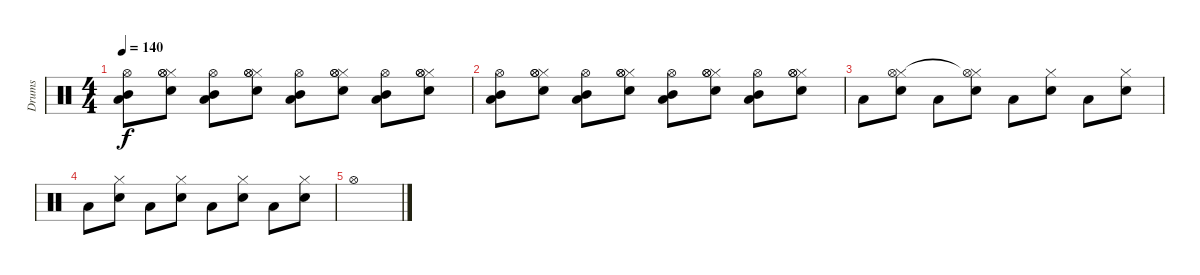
\track ("Drums" "Drums") {instrument percussion}
\staff {score}
\articulation defaults
\ts (4 4)
\tempo 140
\clef neutral
\ks c
("Mid Tom (hit)" "Hi-Hat (open)" "Low Tom (hit)").8{dy f} ("Hi-Hat (closed)" "Hi-Hat (open)" "Hi-Hat (open)" "Electric Snare (hit)").8 ("Mid Tom (hit)" "Hi-Hat (open)" "Low Tom (hit)").8 ("Hi-Hat (closed)" "Hi-Hat (open)" "Hi-Hat (open)" "Electric Snare (hit)").8 ("Mid Tom (hit)" "Hi-Hat (open)" "Low Tom (hit)").8 ("Hi-Hat (closed)" "Hi-Hat (open)" "Hi-Hat (open)" "Electric Snare (hit)").8 ("Mid Tom (hit)" "Hi-Hat (open)" "Low Tom (hit)").8 ("Hi-Hat (closed)" "Hi-Hat (open)" "Hi-Hat (open)" "Electric Snare (hit)").8 |
("Mid Tom (hit)" "Hi-Hat (open)" "Low Tom (hit)").8 ("Hi-Hat (closed)" "Hi-Hat (open)" "Hi-Hat (open)" "Electric Snare (hit)").8 ("Mid Tom (hit)" "Hi-Hat (open)" "Low Tom (hit)").8 ("Hi-Hat (closed)" "Hi-Hat (open)" "Hi-Hat (open)" "Electric Snare (hit)").8 ("Mid Tom (hit)" "Hi-Hat (open)" "Low Tom (hit)").8 ("Hi-Hat (closed)" "Hi-Hat (open)" "Hi-Hat (open)" "Electric Snare (hit)").8 ("Mid Tom (hit)" "Hi-Hat (open)" "Low Tom (hit)").8 ("Hi-Hat (closed)" "Hi-Hat (open)" "Hi-Hat (open)" "Electric Snare (hit)").8 |
"Low Tom (hit)".8 ("Hi-Hat (closed)" "Hi-Hat (open)" "Electric Snare (hit)").8 "Low Tom (hit)".8 ("Hi-Hat (closed)" "Hi-Hat (open)"{t} "Electric Snare (hit)").8 "Low Tom (hit)".8 ("Hi-Hat (closed)" "Electric Snare (hit)").8 "Low Tom (hit)".8 ("Hi-Hat (closed)" "Electric Snare (hit)").8 |
"Low Tom (hit)".8 ("Hi-Hat (closed)" "Electric Snare (hit)").8 "Low Tom (hit)".8 ("Hi-Hat (closed)" "Electric Snare (hit)").8 "Low Tom (hit)".8 ("Hi-Hat (closed)" "Electric Snare (hit)").8 "Low Tom (hit)".8 ("Hi-Hat (closed)" "Electric Snare (hit)").8 |
"Hi-Hat (open)".1
